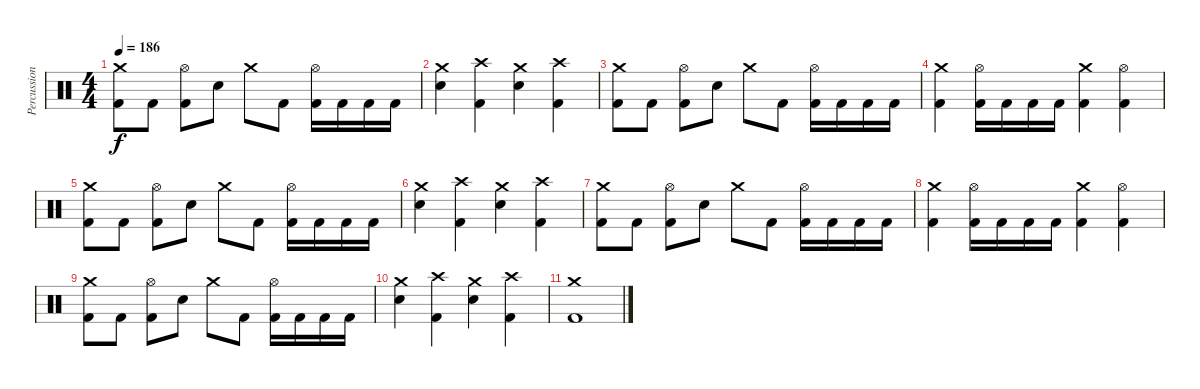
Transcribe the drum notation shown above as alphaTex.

\track ("Percussion" "Percussion") {instrument percussion}
\staff {score}
\articulation defaults
\ts (4 4)
\tempo 186
\clef neutral
\ks c
("Crash medium (hit)" "Kick (hit) 2").8{dy f} "Kick (hit) 2".8 ("Hi-Hat (open)" "Kick (hit) 2").8 "Snare (hit) 2".8 "Crash medium (hit)".8 "Kick (hit) 2".8 ("Hi-Hat (open)" "Kick (hit) 2").16 "Kick (hit) 2".16 "Kick (hit) 2".16 "Kick (hit) 2".16 |
("Crash medium (hit)" "Snare (hit) 2").4 ("Crash high (hit)" "Kick (hit) 2").4 ("Crash medium (hit)" "Snare (hit) 2").4 ("Crash high (hit)" "Kick (hit) 2").4 |
("Crash medium (hit)" "Kick (hit) 2").8 "Kick (hit) 2".8 ("Hi-Hat (open)" "Kick (hit) 2").8 "Snare (hit) 2".8 "Crash medium (hit)".8 "Kick (hit) 2".8 ("Hi-Hat (open)" "Kick (hit) 2").16 "Kick (hit) 2".16 "Kick (hit) 2".16 "Kick (hit) 2".16 |
("Crash medium (hit)" "Kick (hit) 2").4 ("Hi-Hat (open)" "Kick (hit) 2").16 "Kick (hit) 2".16 "Kick (hit) 2".16 "Kick (hit) 2".16 ("Crash medium (hit)" "Kick (hit) 2").4 ("Hi-Hat (open)" "Kick (hit) 2").4 |
("Crash medium (hit)" "Kick (hit) 2").8 "Kick (hit) 2".8 ("Hi-Hat (open)" "Kick (hit) 2").8 "Snare (hit) 2".8 "Crash medium (hit)".8 "Kick (hit) 2".8 ("Hi-Hat (open)" "Kick (hit) 2").16 "Kick (hit) 2".16 "Kick (hit) 2".16 "Kick (hit) 2".16 |
("Crash medium (hit)" "Snare (hit) 2").4 ("Crash high (hit)" "Kick (hit) 2").4 ("Crash medium (hit)" "Snare (hit) 2").4 ("Crash high (hit)" "Kick (hit) 2").4 |
("Crash medium (hit)" "Kick (hit) 2").8 "Kick (hit) 2".8 ("Hi-Hat (open)" "Kick (hit) 2").8 "Snare (hit) 2".8 "Crash medium (hit)".8 "Kick (hit) 2".8 ("Hi-Hat (open)" "Kick (hit) 2").16 "Kick (hit) 2".16 "Kick (hit) 2".16 "Kick (hit) 2".16 |
("Crash medium (hit)" "Kick (hit) 2").4 ("Hi-Hat (open)" "Kick (hit) 2").16 "Kick (hit) 2".16 "Kick (hit) 2".16 "Kick (hit) 2".16 ("Crash medium (hit)" "Kick (hit) 2").4 ("Hi-Hat (open)" "Kick (hit) 2").4 |
("Crash medium (hit)" "Kick (hit) 2").8 "Kick (hit) 2".8 ("Hi-Hat (open)" "Kick (hit) 2").8 "Snare (hit) 2".8 "Crash medium (hit)".8 "Kick (hit) 2".8 ("Hi-Hat (open)" "Kick (hit) 2").16 "Kick (hit) 2".16 "Kick (hit) 2".16 "Kick (hit) 2".16 |
("Crash medium (hit)" "Snare (hit) 2").4 ("Crash high (hit)" "Kick (hit) 2").4 ("Crash medium (hit)" "Snare (hit) 2").4 ("Crash high (hit)" "Kick (hit) 2").4 |
("Crash medium (hit)" "Kick (hit) 2").1
